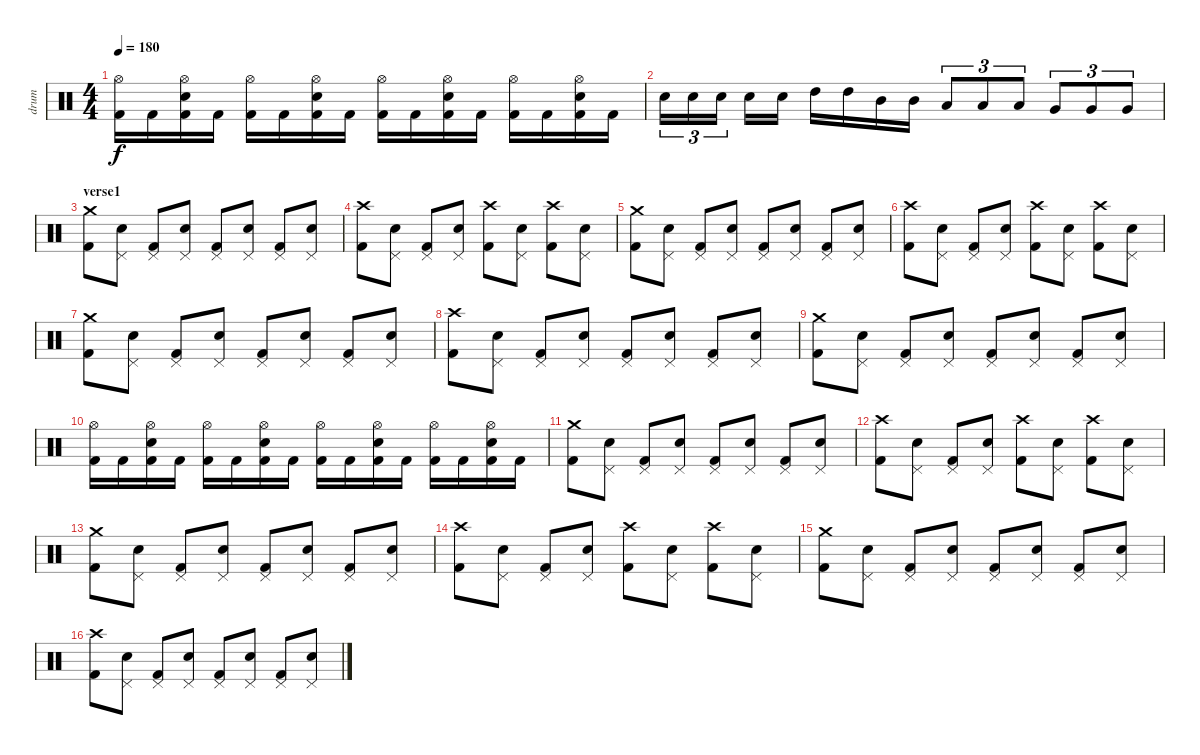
\track ("drum" "drum") {instrument percussion}
\staff {score}
\articulation defaults
\ts (4 4)
\tempo 180
\clef neutral
\ks c
("Hi-Hat (open)" "Kick (hit) 2").16{dy f} "Kick (hit) 2".16 ("Hi-Hat (open)" "Electric Snare (hit)" "Kick (hit) 2").16 "Kick (hit) 2".16 ("Hi-Hat (open)" "Kick (hit) 2").16 "Kick (hit) 2".16 ("Hi-Hat (open)" "Electric Snare (hit)" "Kick (hit) 2").16 "Kick (hit) 2".16 ("Hi-Hat (open)" "Kick (hit) 2").16 "Kick (hit) 2".16 ("Hi-Hat (open)" "Electric Snare (hit)" "Kick (hit) 2").16 "Kick (hit) 2".16 ("Hi-Hat (open)" "Kick (hit) 2").16 "Kick (hit) 2".16 ("Hi-Hat (open)" "Electric Snare (hit)" "Kick (hit) 2").16 "Kick (hit) 2".16 |
"Electric Snare (hit)".16{tu (3 2)} "Electric Snare (hit)".16{tu (3 2)} "Electric Snare (hit)".16{tu (3 2)} "Electric Snare (hit)".16 "Electric Snare (hit)".16 "High Tom (hit)".16 "High Tom (hit)".16 "Mid Tom (hit)".16 "Mid Tom (hit)".16 "Low Tom (hit)".8{tu (3 2)} "Low Tom (hit)".8{tu (3 2)} "Low Tom (hit)".8{tu (3 2)} "Very Low Tom (hit)".8{tu (3 2)} "Very Low Tom (hit)".8{tu (3 2)} "Very Low Tom (hit)".8{tu (3 2)} |
\section ("" "verse1")
("Crash medium (hit)" "Kick (hit) 2").8 ("Pedal Hi-Hat (hit)" "Electric Snare (hit)").8 ("Pedal Hi-Hat (hit)" "Kick (hit) 2").8 ("Pedal Hi-Hat (hit)" "Electric Snare (hit)").8 ("Pedal Hi-Hat (hit)" "Kick (hit) 2").8 ("Pedal Hi-Hat (hit)" "Electric Snare (hit)").8 ("Pedal Hi-Hat (hit)" "Kick (hit) 2").8 ("Pedal Hi-Hat (hit)" "Electric Snare (hit)").8 |
("Crash high (hit)" "Kick (hit) 2").8 ("Pedal Hi-Hat (hit)" "Electric Snare (hit)").8 ("Pedal Hi-Hat (hit)" "Kick (hit) 2").8 ("Pedal Hi-Hat (hit)" "Electric Snare (hit)").8 ("Crash high (hit)" "Kick (hit) 2").8 ("Pedal Hi-Hat (hit)" "Electric Snare (hit)").8 ("Crash high (hit)" "Kick (hit) 2").8 ("Pedal Hi-Hat (hit)" "Electric Snare (hit)").8 |
("Crash medium (hit)" "Kick (hit) 2").8 ("Pedal Hi-Hat (hit)" "Electric Snare (hit)").8 ("Pedal Hi-Hat (hit)" "Kick (hit) 2").8 ("Pedal Hi-Hat (hit)" "Electric Snare (hit)").8 ("Pedal Hi-Hat (hit)" "Kick (hit) 2").8 ("Pedal Hi-Hat (hit)" "Electric Snare (hit)").8 ("Pedal Hi-Hat (hit)" "Kick (hit) 2").8 ("Pedal Hi-Hat (hit)" "Electric Snare (hit)").8 |
("Crash high (hit)" "Kick (hit) 2").8 ("Pedal Hi-Hat (hit)" "Electric Snare (hit)").8 ("Pedal Hi-Hat (hit)" "Kick (hit) 2").8 ("Pedal Hi-Hat (hit)" "Electric Snare (hit)").8 ("Crash high (hit)" "Kick (hit) 2").8 ("Pedal Hi-Hat (hit)" "Electric Snare (hit)").8 ("Crash high (hit)" "Kick (hit) 2").8 ("Pedal Hi-Hat (hit)" "Electric Snare (hit)").8 |
("Crash medium (hit)" "Kick (hit) 2").8 ("Pedal Hi-Hat (hit)" "Electric Snare (hit)").8 ("Pedal Hi-Hat (hit)" "Kick (hit) 2").8 ("Pedal Hi-Hat (hit)" "Electric Snare (hit)").8 ("Pedal Hi-Hat (hit)" "Kick (hit) 2").8 ("Pedal Hi-Hat (hit)" "Electric Snare (hit)").8 ("Pedal Hi-Hat (hit)" "Kick (hit) 2").8 ("Pedal Hi-Hat (hit)" "Electric Snare (hit)").8 |
("Crash high (hit)" "Kick (hit) 2").8 ("Pedal Hi-Hat (hit)" "Electric Snare (hit)").8 ("Pedal Hi-Hat (hit)" "Kick (hit) 2").8 ("Pedal Hi-Hat (hit)" "Electric Snare (hit)").8 ("Pedal Hi-Hat (hit)" "Kick (hit) 2").8 ("Pedal Hi-Hat (hit)" "Electric Snare (hit)").8 ("Pedal Hi-Hat (hit)" "Kick (hit) 2").8 ("Pedal Hi-Hat (hit)" "Electric Snare (hit)").8 |
("Crash medium (hit)" "Kick (hit) 2").8 ("Pedal Hi-Hat (hit)" "Electric Snare (hit)").8 ("Pedal Hi-Hat (hit)" "Kick (hit) 2").8 ("Pedal Hi-Hat (hit)" "Electric Snare (hit)").8 ("Pedal Hi-Hat (hit)" "Kick (hit) 2").8 ("Pedal Hi-Hat (hit)" "Electric Snare (hit)").8 ("Pedal Hi-Hat (hit)" "Kick (hit) 2").8 ("Pedal Hi-Hat (hit)" "Electric Snare (hit)").8 |
("Hi-Hat (open)" "Kick (hit) 2").16 "Kick (hit) 2".16 ("Hi-Hat (open)" "Electric Snare (hit)" "Kick (hit) 2").16 "Kick (hit) 2".16 ("Hi-Hat (open)" "Kick (hit) 2").16 "Kick (hit) 2".16 ("Hi-Hat (open)" "Electric Snare (hit)" "Kick (hit) 2").16 "Kick (hit) 2".16 ("Hi-Hat (open)" "Kick (hit) 2").16 "Kick (hit) 2".16 ("Hi-Hat (open)" "Electric Snare (hit)" "Kick (hit) 2").16 "Kick (hit) 2".16 ("Hi-Hat (open)" "Kick (hit) 2").16 "Kick (hit) 2".16 ("Hi-Hat (open)" "Electric Snare (hit)" "Kick (hit) 2").16 "Kick (hit) 2".16 |
("Crash medium (hit)" "Kick (hit) 2").8 ("Pedal Hi-Hat (hit)" "Electric Snare (hit)").8 ("Pedal Hi-Hat (hit)" "Kick (hit) 2").8 ("Pedal Hi-Hat (hit)" "Electric Snare (hit)").8 ("Pedal Hi-Hat (hit)" "Kick (hit) 2").8 ("Pedal Hi-Hat (hit)" "Electric Snare (hit)").8 ("Pedal Hi-Hat (hit)" "Kick (hit) 2").8 ("Pedal Hi-Hat (hit)" "Electric Snare (hit)").8 |
("Crash high (hit)" "Kick (hit) 2").8 ("Pedal Hi-Hat (hit)" "Electric Snare (hit)").8 ("Pedal Hi-Hat (hit)" "Kick (hit) 2").8 ("Pedal Hi-Hat (hit)" "Electric Snare (hit)").8 ("Crash high (hit)" "Kick (hit) 2").8 ("Pedal Hi-Hat (hit)" "Electric Snare (hit)").8 ("Crash high (hit)" "Kick (hit) 2").8 ("Pedal Hi-Hat (hit)" "Electric Snare (hit)").8 |
("Crash medium (hit)" "Kick (hit) 2").8 ("Pedal Hi-Hat (hit)" "Electric Snare (hit)").8 ("Pedal Hi-Hat (hit)" "Kick (hit) 2").8 ("Pedal Hi-Hat (hit)" "Electric Snare (hit)").8 ("Pedal Hi-Hat (hit)" "Kick (hit) 2").8 ("Pedal Hi-Hat (hit)" "Electric Snare (hit)").8 ("Pedal Hi-Hat (hit)" "Kick (hit) 2").8 ("Pedal Hi-Hat (hit)" "Electric Snare (hit)").8 |
("Crash high (hit)" "Kick (hit) 2").8 ("Pedal Hi-Hat (hit)" "Electric Snare (hit)").8 ("Pedal Hi-Hat (hit)" "Kick (hit) 2").8 ("Pedal Hi-Hat (hit)" "Electric Snare (hit)").8 ("Crash high (hit)" "Kick (hit) 2").8 ("Pedal Hi-Hat (hit)" "Electric Snare (hit)").8 ("Crash high (hit)" "Kick (hit) 2").8 ("Pedal Hi-Hat (hit)" "Electric Snare (hit)").8 |
("Crash medium (hit)" "Kick (hit) 2").8 ("Pedal Hi-Hat (hit)" "Electric Snare (hit)").8 ("Pedal Hi-Hat (hit)" "Kick (hit) 2").8 ("Pedal Hi-Hat (hit)" "Electric Snare (hit)").8 ("Pedal Hi-Hat (hit)" "Kick (hit) 2").8 ("Pedal Hi-Hat (hit)" "Electric Snare (hit)").8 ("Pedal Hi-Hat (hit)" "Kick (hit) 2").8 ("Pedal Hi-Hat (hit)" "Electric Snare (hit)").8 |
("Crash high (hit)" "Kick (hit) 2").8 ("Pedal Hi-Hat (hit)" "Electric Snare (hit)").8 ("Pedal Hi-Hat (hit)" "Kick (hit) 2").8 ("Pedal Hi-Hat (hit)" "Electric Snare (hit)").8 ("Pedal Hi-Hat (hit)" "Kick (hit) 2").8 ("Pedal Hi-Hat (hit)" "Electric Snare (hit)").8 ("Pedal Hi-Hat (hit)" "Kick (hit) 2").8 ("Pedal Hi-Hat (hit)" "Electric Snare (hit)").8
